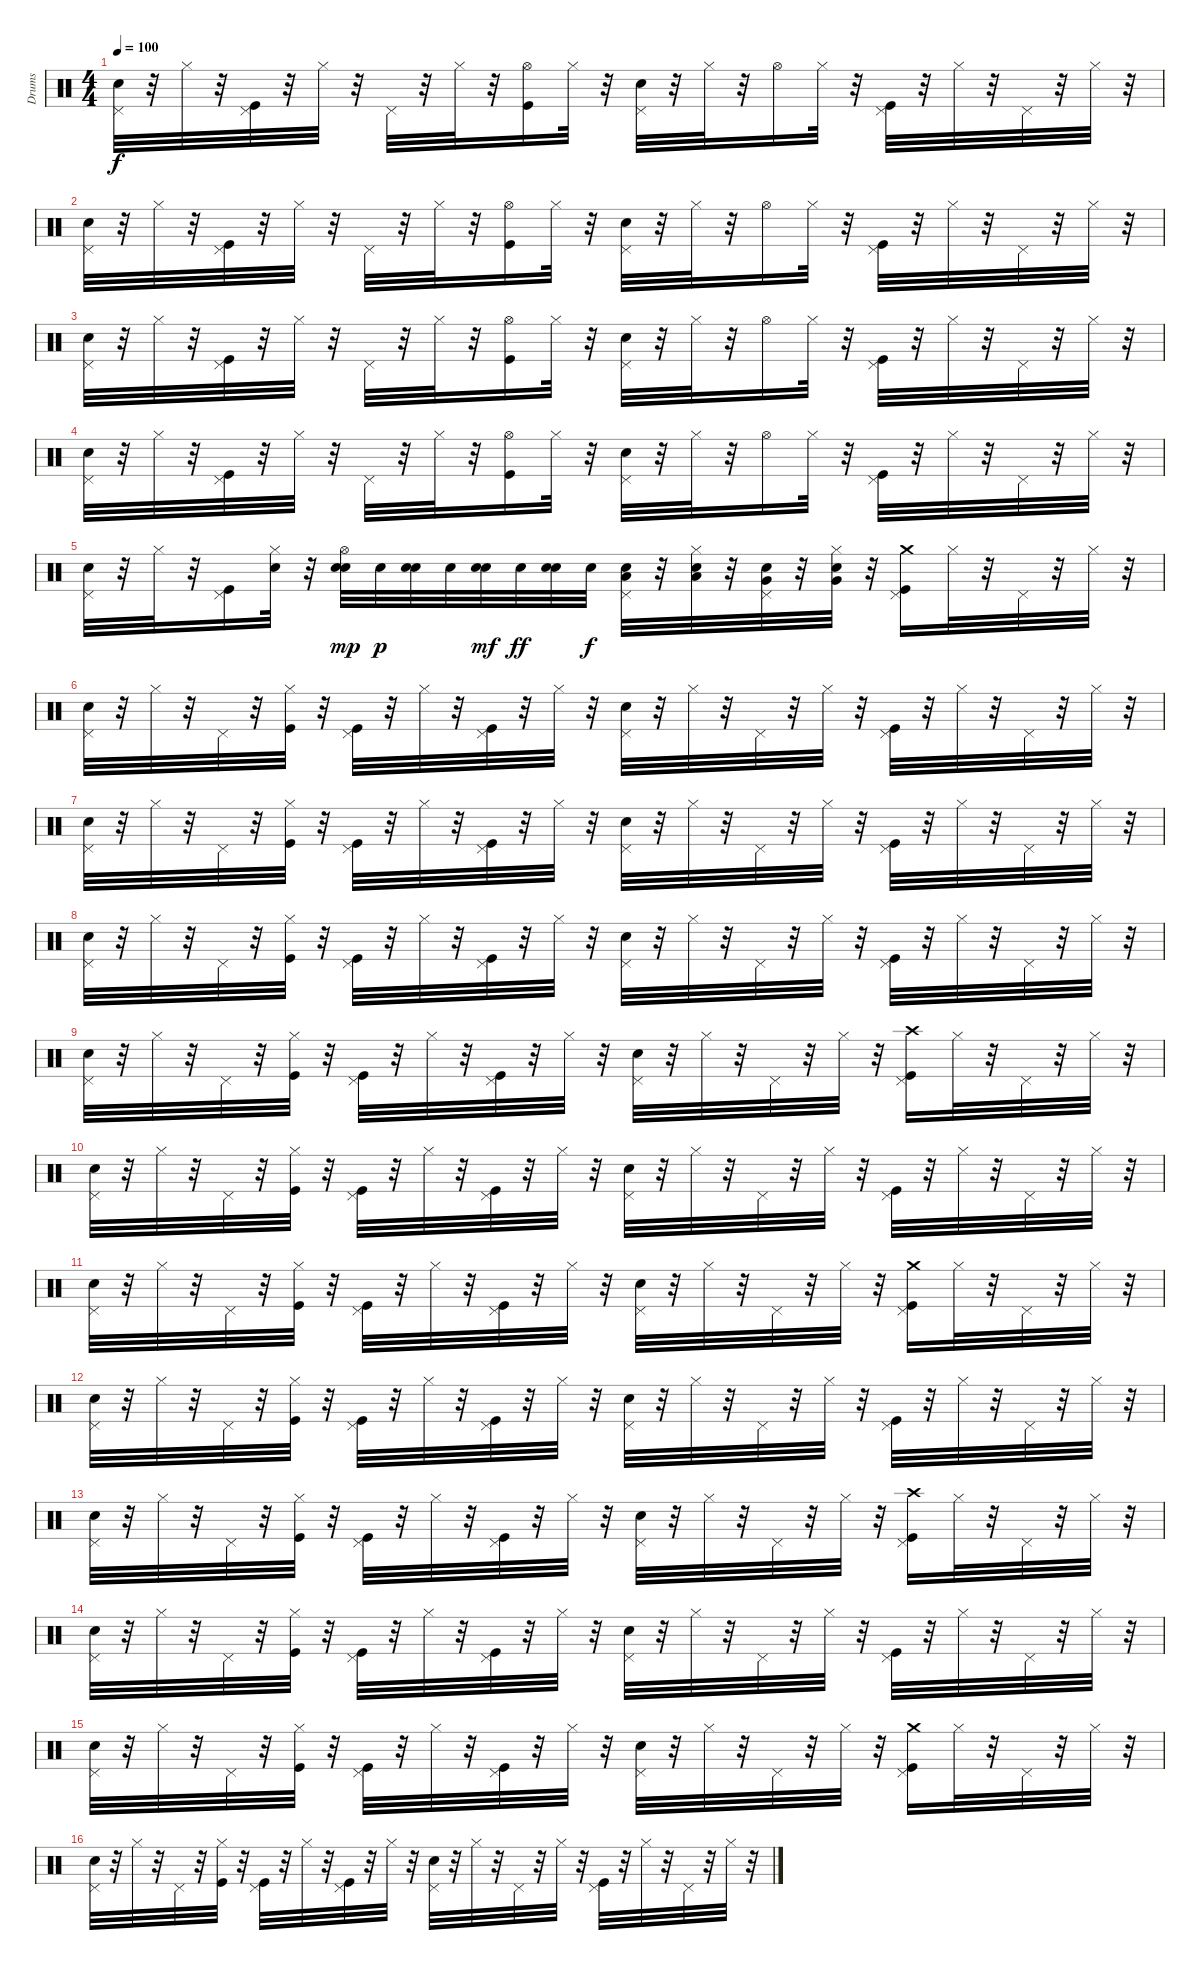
\track ("Drums" "Drums") {instrument percussion}
\staff {score}
\articulation defaults
\ts (4 4)
\tempo 100
\clef neutral
\ks c
("Pedal Hi-Hat (hit)" "Metronome (bell)").32{dy f} r.32 "Hi-Hat (closed)".32 r.32 ("Pedal Hi-Hat (hit)" "Kick (hit)").32 r.32 "Hi-Hat (closed)".32 r.32 "Pedal Hi-Hat (hit)".32 r.32 "Hi-Hat (closed)".32 r.32 ("Hi-Hat (open)" "Kick (hit)").16 "Hi-Hat (closed)".32 r.32 ("Metronome (bell)" "Pedal Hi-Hat (hit)").32 r.32 "Hi-Hat (closed)".32 r.32 "Hi-Hat (open)".16 "Hi-Hat (closed)".32 r.32 ("Pedal Hi-Hat (hit)" "Kick (hit)").32 r.32 "Hi-Hat (closed)".32 r.32 "Pedal Hi-Hat (hit)".32 r.32 "Hi-Hat (closed)".32 r.32 |
("Metronome (bell)" "Pedal Hi-Hat (hit)").32 r.32 "Hi-Hat (closed)".32 r.32 ("Kick (hit)" "Pedal Hi-Hat (hit)").32 r.32 "Hi-Hat (closed)".32 r.32 "Pedal Hi-Hat (hit)".32 r.32 "Hi-Hat (closed)".32 r.32 ("Hi-Hat (open)" "Kick (hit)").16 "Hi-Hat (closed)".32 r.32 ("Pedal Hi-Hat (hit)" "Metronome (bell)").32 r.32 "Hi-Hat (closed)".32 r.32 "Hi-Hat (open)".16 "Hi-Hat (closed)".32 r.32 ("Pedal Hi-Hat (hit)" "Kick (hit)").32 r.32 "Hi-Hat (closed)".32 r.32 "Pedal Hi-Hat (hit)".32 r.32 "Hi-Hat (closed)".32 r.32 |
("Metronome (bell)" "Pedal Hi-Hat (hit)").32 r.32 "Hi-Hat (closed)".32 r.32 ("Kick (hit)" "Pedal Hi-Hat (hit)").32 r.32 "Hi-Hat (closed)".32 r.32 "Pedal Hi-Hat (hit)".32 r.32 "Hi-Hat (closed)".32 r.32 ("Hi-Hat (open)" "Kick (hit)").16 "Hi-Hat (closed)".32 r.32 ("Pedal Hi-Hat (hit)" "Metronome (bell)").32 r.32 "Hi-Hat (closed)".32 r.32 "Hi-Hat (open)".16 "Hi-Hat (closed)".32 r.32 ("Pedal Hi-Hat (hit)" "Kick (hit)").32 r.32 "Hi-Hat (closed)".32 r.32 "Pedal Hi-Hat (hit)".32 r.32 "Hi-Hat (closed)".32 r.32 |
("Pedal Hi-Hat (hit)" "Metronome (bell)").32 r.32 "Hi-Hat (closed)".32 r.32 ("Pedal Hi-Hat (hit)" "Kick (hit)").32 r.32 "Hi-Hat (closed)".32 r.32 "Pedal Hi-Hat (hit)".32 r.32 "Hi-Hat (closed)".32 r.32 ("Hi-Hat (open)" "Kick (hit)").16 "Hi-Hat (closed)".32 r.32 ("Pedal Hi-Hat (hit)" "Metronome (bell)").32 r.32 "Hi-Hat (closed)".32 r.32 "Hi-Hat (open)".16 "Hi-Hat (closed)".32 r.32 ("Kick (hit)" "Pedal Hi-Hat (hit)").32 r.32 "Hi-Hat (closed)".32 r.32 "Pedal Hi-Hat (hit)".32 r.32 "Hi-Hat (closed)".32 r.32 |
("Pedal Hi-Hat (hit)" "Metronome (bell)").32 r.32 "Hi-Hat (closed)".32 r.32 ("Pedal Hi-Hat (hit)" "Kick (hit)").16 ("Hi-Hat (closed)" "Snare (hit) 2").32 r.32 ("Snare (hit) 2" "Hi-Hat (open)" "Snare (hit) 2").32{dy mp} "Snare (hit) 2".32{dy p} ("Snare (hit) 2" "Snare (hit) 2").32 "Snare (hit) 2".32 ("Snare (hit) 2" "Snare (hit) 2").32{dy mf} "Snare (hit) 2".32{dy ff} ("Snare (hit) 2" "Snare (hit) 2").32 "Snare (hit) 2".32{dy f} ("Pedal Hi-Hat (hit)" "Metronome (bell)" "Low Tom (hit)").32 r.32 ("Hi-Hat (closed)" "Metronome (bell)" "Low Tom (hit)").32 r.32 ("Pedal Hi-Hat (hit)" "Snare (hit) 2" "Very Low Tom (hit)").32 r.32 ("Hi-Hat (closed)" "Snare (hit) 2" "Very Low Tom (hit)").32 r.32 ("Crash medium (hit)" "Pedal Hi-Hat (hit)" "Kick (hit)").16 "Hi-Hat (closed)".32 r.32 "Pedal Hi-Hat (hit)".32 r.32 "Hi-Hat (closed)".32 r.32 |
("Pedal Hi-Hat (hit)" "Metronome (bell)").32 r.32 "Hi-Hat (closed)".32 r.32 "Pedal Hi-Hat (hit)".32 r.32 ("Kick (hit)" "Hi-Hat (closed)").32 r.32 ("Pedal Hi-Hat (hit)" "Kick (hit)").32 r.32 "Hi-Hat (closed)".32 r.32 ("Kick (hit)" "Pedal Hi-Hat (hit)").32 r.32 "Hi-Hat (closed)".32 r.32 ("Metronome (bell)" "Pedal Hi-Hat (hit)").32 r.32 "Hi-Hat (closed)".32 r.32 "Pedal Hi-Hat (hit)".32 r.32 "Hi-Hat (closed)".32 r.32 ("Pedal Hi-Hat (hit)" "Kick (hit)").32 r.32 "Hi-Hat (closed)".32 r.32 "Pedal Hi-Hat (hit)".32 r.32 "Hi-Hat (closed)".32 r.32 |
("Metronome (bell)" "Pedal Hi-Hat (hit)").32 r.32 "Hi-Hat (closed)".32 r.32 "Pedal Hi-Hat (hit)".32 r.32 ("Kick (hit)" "Hi-Hat (closed)").32 r.32 ("Pedal Hi-Hat (hit)" "Kick (hit)").32 r.32 "Hi-Hat (closed)".32 r.32 ("Kick (hit)" "Pedal Hi-Hat (hit)").32 r.32 "Hi-Hat (closed)".32 r.32 ("Pedal Hi-Hat (hit)" "Metronome (bell)").32 r.32 "Hi-Hat (closed)".32 r.32 "Pedal Hi-Hat (hit)".32 r.32 "Hi-Hat (closed)".32 r.32 ("Kick (hit)" "Pedal Hi-Hat (hit)").32 r.32 "Hi-Hat (closed)".32 r.32 "Pedal Hi-Hat (hit)".32 r.32 "Hi-Hat (closed)".32 r.32 |
("Metronome (bell)" "Pedal Hi-Hat (hit)").32 r.32 "Hi-Hat (closed)".32 r.32 "Pedal Hi-Hat (hit)".32 r.32 ("Kick (hit)" "Hi-Hat (closed)").32 r.32 ("Pedal Hi-Hat (hit)" "Kick (hit)").32 r.32 "Hi-Hat (closed)".32 r.32 ("Kick (hit)" "Pedal Hi-Hat (hit)").32 r.32 "Hi-Hat (closed)".32 r.32 ("Metronome (bell)" "Pedal Hi-Hat (hit)").32 r.32 "Hi-Hat (closed)".32 r.32 "Pedal Hi-Hat (hit)".32 r.32 "Hi-Hat (closed)".32 r.32 ("Pedal Hi-Hat (hit)" "Kick (hit)").32 r.32 "Hi-Hat (closed)".32 r.32 "Pedal Hi-Hat (hit)".32 r.32 "Hi-Hat (closed)".32 r.32 |
("Metronome (bell)" "Pedal Hi-Hat (hit)").32 r.32 "Hi-Hat (closed)".32 r.32 "Pedal Hi-Hat (hit)".32 r.32 ("Hi-Hat (closed)" "Kick (hit)").32 r.32 ("Kick (hit)" "Pedal Hi-Hat (hit)").32 r.32 "Hi-Hat (closed)".32 r.32 ("Pedal Hi-Hat (hit)" "Kick (hit)").32 r.32 "Hi-Hat (closed)".32 r.32 ("Pedal Hi-Hat (hit)" "Metronome (bell)").32 r.32 "Hi-Hat (closed)".32 r.32 "Pedal Hi-Hat (hit)".32 r.32 "Hi-Hat (closed)".32 r.32 ("Pedal Hi-Hat (hit)" "Crash high (hit)" "Kick (hit)").16 "Hi-Hat (closed)".32 r.32 "Pedal Hi-Hat (hit)".32 r.32 "Hi-Hat (closed)".32 r.32 |
("Metronome (bell)" "Pedal Hi-Hat (hit)").32 r.32 "Hi-Hat (closed)".32 r.32 "Pedal Hi-Hat (hit)".32 r.32 ("Hi-Hat (closed)" "Kick (hit)").32 r.32 ("Pedal Hi-Hat (hit)" "Kick (hit)").32 r.32 "Hi-Hat (closed)".32 r.32 ("Pedal Hi-Hat (hit)" "Kick (hit)").32 r.32 "Hi-Hat (closed)".32 r.32 ("Pedal Hi-Hat (hit)" "Metronome (bell)").32 r.32 "Hi-Hat (closed)".32 r.32 "Pedal Hi-Hat (hit)".32 r.32 "Hi-Hat (closed)".32 r.32 ("Kick (hit)" "Pedal Hi-Hat (hit)").32 r.32 "Hi-Hat (closed)".32 r.32 "Pedal Hi-Hat (hit)".32 r.32 "Hi-Hat (closed)".32 r.32 |
("Metronome (bell)" "Pedal Hi-Hat (hit)").32 r.32 "Hi-Hat (closed)".32 r.32 "Pedal Hi-Hat (hit)".32 r.32 ("Hi-Hat (closed)" "Kick (hit)").32 r.32 ("Pedal Hi-Hat (hit)" "Kick (hit)").32 r.32 "Hi-Hat (closed)".32 r.32 ("Pedal Hi-Hat (hit)" "Kick (hit)").32 r.32 "Hi-Hat (closed)".32 r.32 ("Metronome (bell)" "Pedal Hi-Hat (hit)").32 r.32 "Hi-Hat (closed)".32 r.32 "Pedal Hi-Hat (hit)".32 r.32 "Hi-Hat (closed)".32 r.32 ("Kick (hit)" "Pedal Hi-Hat (hit)" "Crash medium (hit)").16 "Hi-Hat (closed)".32 r.32 "Pedal Hi-Hat (hit)".32 r.32 "Hi-Hat (closed)".32 r.32 |
("Metronome (bell)" "Pedal Hi-Hat (hit)").32 r.32 "Hi-Hat (closed)".32 r.32 "Pedal Hi-Hat (hit)".32 r.32 ("Kick (hit)" "Hi-Hat (closed)").32 r.32 ("Kick (hit)" "Pedal Hi-Hat (hit)").32 r.32 "Hi-Hat (closed)".32 r.32 ("Pedal Hi-Hat (hit)" "Kick (hit)").32 r.32 "Hi-Hat (closed)".32 r.32 ("Metronome (bell)" "Pedal Hi-Hat (hit)").32 r.32 "Hi-Hat (closed)".32 r.32 "Pedal Hi-Hat (hit)".32 r.32 "Hi-Hat (closed)".32 r.32 ("Kick (hit)" "Pedal Hi-Hat (hit)").32 r.32 "Hi-Hat (closed)".32 r.32 "Pedal Hi-Hat (hit)".32 r.32 "Hi-Hat (closed)".32 r.32 |
("Metronome (bell)" "Pedal Hi-Hat (hit)").32 r.32 "Hi-Hat (closed)".32 r.32 "Pedal Hi-Hat (hit)".32 r.32 ("Hi-Hat (closed)" "Kick (hit)").32 r.32 ("Kick (hit)" "Pedal Hi-Hat (hit)").32 r.32 "Hi-Hat (closed)".32 r.32 ("Kick (hit)" "Pedal Hi-Hat (hit)").32 r.32 "Hi-Hat (closed)".32 r.32 ("Pedal Hi-Hat (hit)" "Metronome (bell)").32 r.32 "Hi-Hat (closed)".32 r.32 "Pedal Hi-Hat (hit)".32 r.32 "Hi-Hat (closed)".32 r.32 ("Pedal Hi-Hat (hit)" "Kick (hit)" "Crash high (hit)").16 "Hi-Hat (closed)".32 r.32 "Pedal Hi-Hat (hit)".32 r.32 "Hi-Hat (closed)".32 r.32 |
("Metronome (bell)" "Pedal Hi-Hat (hit)").32 r.32 "Hi-Hat (closed)".32 r.32 "Pedal Hi-Hat (hit)".32 r.32 ("Kick (hit)" "Hi-Hat (closed)").32 r.32 ("Kick (hit)" "Pedal Hi-Hat (hit)").32 r.32 "Hi-Hat (closed)".32 r.32 ("Pedal Hi-Hat (hit)" "Kick (hit)").32 r.32 "Hi-Hat (closed)".32 r.32 ("Pedal Hi-Hat (hit)" "Metronome (bell)").32 r.32 "Hi-Hat (closed)".32 r.32 "Pedal Hi-Hat (hit)".32 r.32 "Hi-Hat (closed)".32 r.32 ("Kick (hit)" "Pedal Hi-Hat (hit)").32 r.32 "Hi-Hat (closed)".32 r.32 "Pedal Hi-Hat (hit)".32 r.32 "Hi-Hat (closed)".32 r.32 |
("Metronome (bell)" "Pedal Hi-Hat (hit)").32 r.32 "Hi-Hat (closed)".32 r.32 "Pedal Hi-Hat (hit)".32 r.32 ("Kick (hit)" "Hi-Hat (closed)").32 r.32 ("Pedal Hi-Hat (hit)" "Kick (hit)").32 r.32 "Hi-Hat (closed)".32 r.32 ("Kick (hit)" "Pedal Hi-Hat (hit)").32 r.32 "Hi-Hat (closed)".32 r.32 ("Pedal Hi-Hat (hit)" "Metronome (bell)").32 r.32 "Hi-Hat (closed)".32 r.32 "Pedal Hi-Hat (hit)".32 r.32 "Hi-Hat (closed)".32 r.32 ("Pedal Hi-Hat (hit)" "Crash medium (hit)" "Kick (hit)").16 "Hi-Hat (closed)".32 r.32 "Pedal Hi-Hat (hit)".32 r.32 "Hi-Hat (closed)".32 r.32 |
("Pedal Hi-Hat (hit)" "Metronome (bell)").32 r.32 "Hi-Hat (closed)".32 r.32 "Pedal Hi-Hat (hit)".32 r.32 ("Hi-Hat (closed)" "Kick (hit)").32 r.32 ("Kick (hit)" "Pedal Hi-Hat (hit)").32 r.32 "Hi-Hat (closed)".32 r.32 ("Pedal Hi-Hat (hit)" "Kick (hit)").32 r.32 "Hi-Hat (closed)".32 r.32 ("Metronome (bell)" "Pedal Hi-Hat (hit)").32 r.32 "Hi-Hat (closed)".32 r.32 "Pedal Hi-Hat (hit)".32 r.32 "Hi-Hat (closed)".32 r.32 ("Kick (hit)" "Pedal Hi-Hat (hit)").32 r.32 "Hi-Hat (closed)".32 r.32 "Pedal Hi-Hat (hit)".32 r.32 "Hi-Hat (closed)".32 r.32
